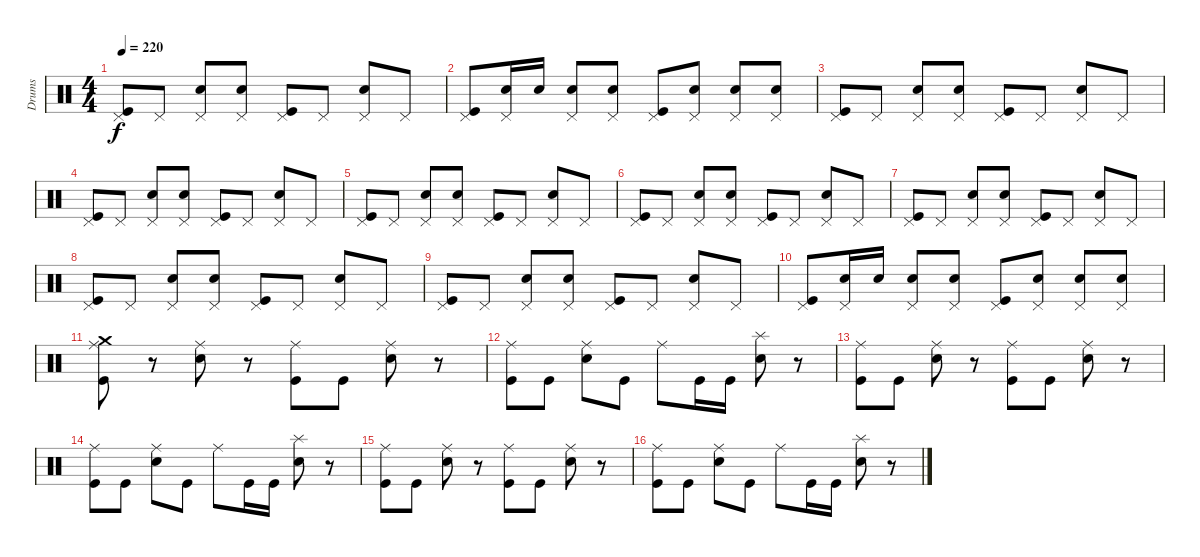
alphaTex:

\track ("Drums" "Drums") {instrument percussion}
\staff {score}
\articulation defaults
\ts (4 4)
\tempo 220
\clef neutral
\ks c
("Kick (hit)" "Pedal Hi-Hat (hit)").8{dy f} "Pedal Hi-Hat (hit)".8 ("Pedal Hi-Hat (hit)" "Electric Snare (hit)").8 ("Electric Snare (hit)" "Pedal Hi-Hat (hit)").8 ("Kick (hit)" "Pedal Hi-Hat (hit)").8 "Pedal Hi-Hat (hit)".8 ("Electric Snare (hit)" "Pedal Hi-Hat (hit)").8 "Pedal Hi-Hat (hit)".8 |
("Pedal Hi-Hat (hit)" "Kick (hit)").8 ("Electric Snare (hit)" "Pedal Hi-Hat (hit)").16 "Electric Snare (hit)".16 ("Electric Snare (hit)" "Pedal Hi-Hat (hit)").8 ("Electric Snare (hit)" "Pedal Hi-Hat (hit)").8 ("Kick (hit)" "Pedal Hi-Hat (hit)").8 ("Electric Snare (hit)" "Pedal Hi-Hat (hit)").8 ("Electric Snare (hit)" "Pedal Hi-Hat (hit)").8 ("Pedal Hi-Hat (hit)" "Electric Snare (hit)").8 |
("Kick (hit)" "Pedal Hi-Hat (hit)").8 "Pedal Hi-Hat (hit)".8 ("Pedal Hi-Hat (hit)" "Electric Snare (hit)").8 ("Electric Snare (hit)" "Pedal Hi-Hat (hit)").8 ("Kick (hit)" "Pedal Hi-Hat (hit)").8 "Pedal Hi-Hat (hit)".8 ("Electric Snare (hit)" "Pedal Hi-Hat (hit)").8 "Pedal Hi-Hat (hit)".8 |
("Pedal Hi-Hat (hit)" "Kick (hit)").8 "Pedal Hi-Hat (hit)".8 ("Pedal Hi-Hat (hit)" "Electric Snare (hit)").8 ("Electric Snare (hit)" "Pedal Hi-Hat (hit)").8 ("Kick (hit)" "Pedal Hi-Hat (hit)").8 "Pedal Hi-Hat (hit)".8 ("Electric Snare (hit)" "Pedal Hi-Hat (hit)").8 "Pedal Hi-Hat (hit)".8 |
("Kick (hit)" "Pedal Hi-Hat (hit)").8 "Pedal Hi-Hat (hit)".8 ("Pedal Hi-Hat (hit)" "Electric Snare (hit)").8 ("Electric Snare (hit)" "Pedal Hi-Hat (hit)").8 ("Kick (hit)" "Pedal Hi-Hat (hit)").8 "Pedal Hi-Hat (hit)".8 ("Electric Snare (hit)" "Pedal Hi-Hat (hit)").8 "Pedal Hi-Hat (hit)".8 |
("Pedal Hi-Hat (hit)" "Kick (hit)").8 "Pedal Hi-Hat (hit)".8 ("Pedal Hi-Hat (hit)" "Electric Snare (hit)").8 ("Electric Snare (hit)" "Pedal Hi-Hat (hit)").8 ("Kick (hit)" "Pedal Hi-Hat (hit)").8 "Pedal Hi-Hat (hit)".8 ("Electric Snare (hit)" "Pedal Hi-Hat (hit)").8 "Pedal Hi-Hat (hit)".8 |
("Kick (hit)" "Pedal Hi-Hat (hit)").8 "Pedal Hi-Hat (hit)".8 ("Pedal Hi-Hat (hit)" "Electric Snare (hit)").8 ("Electric Snare (hit)" "Pedal Hi-Hat (hit)").8 ("Kick (hit)" "Pedal Hi-Hat (hit)").8 "Pedal Hi-Hat (hit)".8 ("Electric Snare (hit)" "Pedal Hi-Hat (hit)").8 "Pedal Hi-Hat (hit)".8 |
("Pedal Hi-Hat (hit)" "Kick (hit)").8 "Pedal Hi-Hat (hit)".8 ("Pedal Hi-Hat (hit)" "Electric Snare (hit)").8 ("Electric Snare (hit)" "Pedal Hi-Hat (hit)").8 ("Kick (hit)" "Pedal Hi-Hat (hit)").8 "Pedal Hi-Hat (hit)".8 ("Electric Snare (hit)" "Pedal Hi-Hat (hit)").8 "Pedal Hi-Hat (hit)".8 |
("Kick (hit)" "Pedal Hi-Hat (hit)").8 "Pedal Hi-Hat (hit)".8 ("Electric Snare (hit)" "Pedal Hi-Hat (hit)").8 ("Electric Snare (hit)" "Pedal Hi-Hat (hit)").8 ("Pedal Hi-Hat (hit)" "Kick (hit)").8 "Pedal Hi-Hat (hit)".8 ("Electric Snare (hit)" "Pedal Hi-Hat (hit)").8 "Pedal Hi-Hat (hit)".8 |
("Kick (hit)" "Pedal Hi-Hat (hit)").8 ("Pedal Hi-Hat (hit)" "Electric Snare (hit)").16 "Electric Snare (hit)".16 ("Electric Snare (hit)" "Pedal Hi-Hat (hit)").8 ("Pedal Hi-Hat (hit)" "Electric Snare (hit)").8 ("Pedal Hi-Hat (hit)" "Kick (hit)").8 ("Electric Snare (hit)" "Pedal Hi-Hat (hit)").8 ("Pedal Hi-Hat (hit)" "Electric Snare (hit)").8 ("Electric Snare (hit)" "Pedal Hi-Hat (hit)").8 |
("Ride (middle)" "Crash medium (hit)" "Kick (hit)").8 r.8 ("Ride (middle)" "Electric Snare (hit)").8 r.8 ("Ride (middle)" "Kick (hit)").8 "Kick (hit)".8 ("Ride (middle)" "Electric Snare (hit)").8 r.8 |
("Ride (middle)" "Kick (hit)").8 "Kick (hit)".8 ("Ride (middle)" "Electric Snare (hit)").8 "Kick (hit)".8 "Ride (middle)".8 "Kick (hit)".16 "Kick (hit)".16 ("Splash (hit)" "Electric Snare (hit)").8 r.8 |
("Ride (middle)" "Kick (hit)").8 "Kick (hit)".8 ("Ride (middle)" "Electric Snare (hit)").8 r.8 ("Ride (middle)" "Kick (hit)").8 "Kick (hit)".8 ("Ride (middle)" "Electric Snare (hit)").8 r.8 |
("Ride (middle)" "Kick (hit)").8 "Kick (hit)".8 ("Ride (middle)" "Electric Snare (hit)").8 "Kick (hit)".8 "Ride (middle)".8 "Kick (hit)".16 "Kick (hit)".16 ("Splash (hit)" "Electric Snare (hit)").8 r.8 |
("Ride (middle)" "Kick (hit)").8 "Kick (hit)".8 ("Ride (middle)" "Electric Snare (hit)").8 r.8 ("Ride (middle)" "Kick (hit)").8 "Kick (hit)".8 ("Ride (middle)" "Electric Snare (hit)").8 r.8 |
("Ride (middle)" "Kick (hit)").8 "Kick (hit)".8 ("Ride (middle)" "Electric Snare (hit)").8 "Kick (hit)".8 "Ride (middle)".8 "Kick (hit)".16 "Kick (hit)".16 ("Splash (hit)" "Electric Snare (hit)").8 r.8
